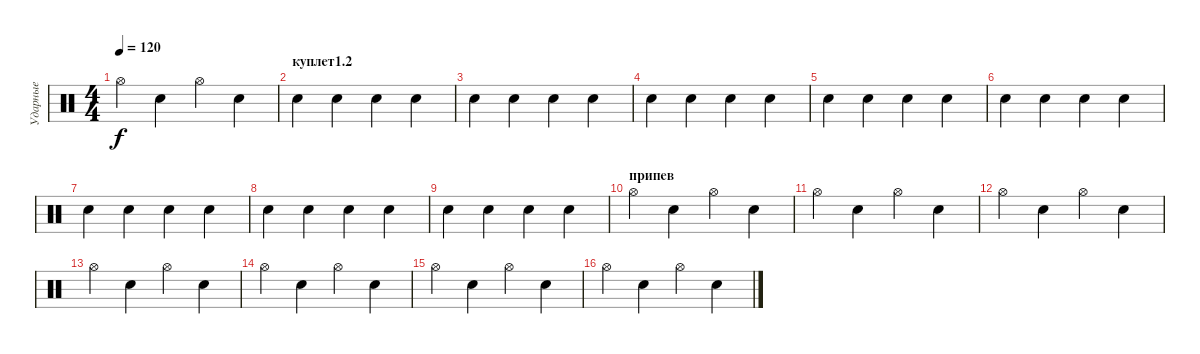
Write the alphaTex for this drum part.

\track ("Ударные" "Ударные") {instrument percussion}
\staff {score}
\articulation defaults
\ts (4 4)
\tempo 120
\clef neutral
\ks c "Hi-Hat (open)".4{dy f} "Electric Snare (hit)".4 "Hi-Hat (open)".4 "Electric Snare (hit)".4
|
\section ("" "куплет1.2")
"Electric Snare (hit)".4 "Electric Snare (hit)".4 "Electric Snare (hit)".4 "Electric Snare (hit)".4 |
"Electric Snare (hit)".4 "Electric Snare (hit)".4 "Electric Snare (hit)".4 "Electric Snare (hit)".4 |
"Electric Snare (hit)".4 "Electric Snare (hit)".4 "Electric Snare (hit)".4 "Electric Snare (hit)".4 |
"Electric Snare (hit)".4 "Electric Snare (hit)".4 "Electric Snare (hit)".4 "Electric Snare (hit)".4 |
"Electric Snare (hit)".4 "Electric Snare (hit)".4 "Electric Snare (hit)".4 "Electric Snare (hit)".4 |
"Electric Snare (hit)".4 "Electric Snare (hit)".4 "Electric Snare (hit)".4 "Electric Snare (hit)".4 |
"Electric Snare (hit)".4 "Electric Snare (hit)".4 "Electric Snare (hit)".4 "Electric Snare (hit)".4 |
"Electric Snare (hit)".4 "Electric Snare (hit)".4 "Electric Snare (hit)".4 "Electric Snare (hit)".4 |
\section ("" "припев")
"Hi-Hat (open)".4 "Electric Snare (hit)".4 "Hi-Hat (open)".4 "Electric Snare (hit)".4 |
"Hi-Hat (open)".4 "Electric Snare (hit)".4 "Hi-Hat (open)".4 "Electric Snare (hit)".4 |
"Hi-Hat (open)".4 "Electric Snare (hit)".4 "Hi-Hat (open)".4 "Electric Snare (hit)".4 |
"Hi-Hat (open)".4 "Electric Snare (hit)".4 "Hi-Hat (open)".4 "Electric Snare (hit)".4 |
"Hi-Hat (open)".4 "Electric Snare (hit)".4 "Hi-Hat (open)".4 "Electric Snare (hit)".4 |
"Hi-Hat (open)".4 "Electric Snare (hit)".4 "Hi-Hat (open)".4 "Electric Snare (hit)".4 |
"Hi-Hat (open)".4 "Electric Snare (hit)".4 "Hi-Hat (open)".4 "Electric Snare (hit)".4
